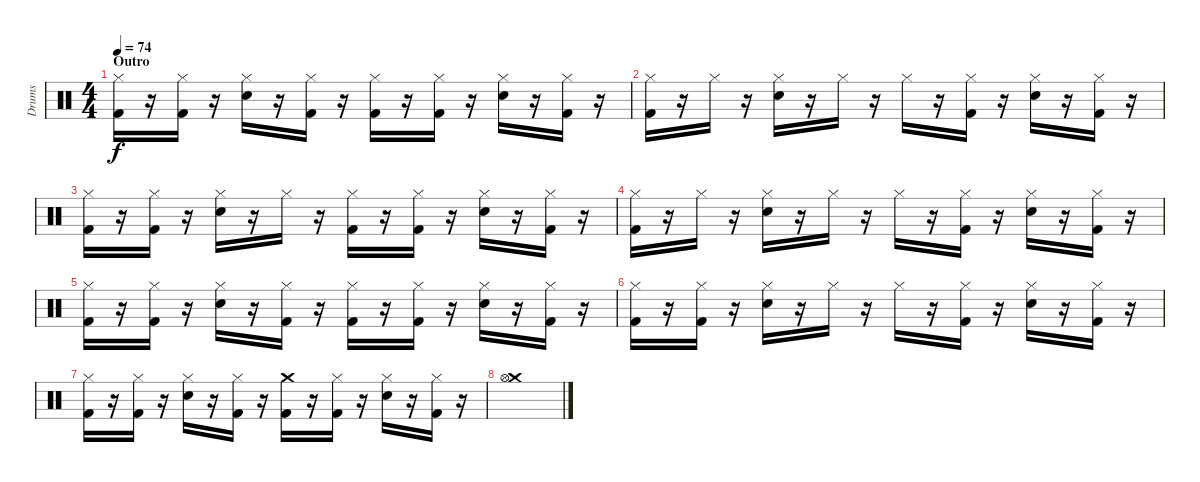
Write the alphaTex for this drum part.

\track ("Drums" "Drums") {instrument percussion}
\staff {score}
\articulation defaults
\ts (4 4)
\section ("" "Outro")
\tempo 74
\clef neutral
\ks c
("Hi-Hat (closed)" "Kick (hit) 2").16{dy f} r.16 ("Hi-Hat (closed)" "Kick (hit) 2").16 r.16 ("Hi-Hat (closed)" "Snare (hit) 2").16 r.16 ("Hi-Hat (closed)" "Kick (hit) 2").16 r.16 ("Hi-Hat (closed)" "Kick (hit) 2").16 r.16 ("Hi-Hat (closed)" "Kick (hit) 2").16 r.16 ("Hi-Hat (closed)" "Snare (hit) 2").16 r.16 ("Hi-Hat (closed)" "Kick (hit) 2").16 r.16 |
("Hi-Hat (closed)" "Kick (hit) 2").16 r.16 "Hi-Hat (closed)".16 r.16 ("Hi-Hat (closed)" "Snare (hit) 2").16 r.16 "Hi-Hat (closed)".16 r.16 "Hi-Hat (closed)".16 r.16 ("Hi-Hat (closed)" "Kick (hit) 2").16 r.16 ("Hi-Hat (closed)" "Snare (hit) 2").16 r.16 ("Hi-Hat (closed)" "Kick (hit) 2").16 r.16 |
("Hi-Hat (closed)" "Kick (hit) 2").16 r.16 ("Hi-Hat (closed)" "Kick (hit) 2").16 r.16 ("Hi-Hat (closed)" "Snare (hit) 2").16 r.16 "Hi-Hat (closed)".16 r.16 ("Hi-Hat (closed)" "Kick (hit) 2").16 r.16 ("Hi-Hat (closed)" "Kick (hit) 2").16 r.16 ("Hi-Hat (closed)" "Snare (hit) 2").16 r.16 ("Hi-Hat (closed)" "Kick (hit) 2").16 r.16 |
("Hi-Hat (closed)" "Kick (hit) 2").16 r.16 "Hi-Hat (closed)".16 r.16 ("Hi-Hat (closed)" "Snare (hit) 2").16 r.16 "Hi-Hat (closed)".16 r.16 "Hi-Hat (closed)".16 r.16 ("Hi-Hat (closed)" "Kick (hit) 2").16 r.16 ("Hi-Hat (closed)" "Snare (hit) 2").16 r.16 ("Hi-Hat (closed)" "Kick (hit) 2").16 r.16 |
("Hi-Hat (closed)" "Kick (hit) 2").16 r.16 ("Hi-Hat (closed)" "Kick (hit) 2").16 r.16 ("Hi-Hat (closed)" "Snare (hit) 2").16 r.16 ("Hi-Hat (closed)" "Kick (hit) 2").16 r.16 ("Hi-Hat (closed)" "Kick (hit) 2").16 r.16 ("Hi-Hat (closed)" "Kick (hit) 2").16 r.16 ("Hi-Hat (closed)" "Snare (hit) 2").16 r.16 ("Hi-Hat (closed)" "Kick (hit) 2").16 r.16 |
("Hi-Hat (closed)" "Kick (hit) 2").16 r.16 ("Hi-Hat (closed)" "Kick (hit) 2").16 r.16 ("Hi-Hat (closed)" "Snare (hit) 2").16 r.16 "Hi-Hat (closed)".16 r.16 "Hi-Hat (closed)".16 r.16 ("Hi-Hat (closed)" "Kick (hit) 2").16 r.16 ("Hi-Hat (closed)" "Snare (hit) 2").16 r.16 ("Hi-Hat (closed)" "Kick (hit) 2").16 r.16 |
("Hi-Hat (closed)" "Kick (hit) 2").16 r.16 ("Hi-Hat (closed)" "Kick (hit) 2").16 r.16 ("Hi-Hat (closed)" "Snare (hit) 2").16 r.16 ("Hi-Hat (closed)" "Kick (hit) 2").16 r.16 ("Crash medium (hit)" "Kick (hit) 2").16 r.16 ("Hi-Hat (closed)" "Kick (hit) 2").16 r.16 ("Hi-Hat (closed)" "Snare (hit) 2").16 r.16 ("Hi-Hat (closed)" "Kick (hit) 2").16 r.16 |
("Crash medium (hit)" "Hi-Hat (open)").1
